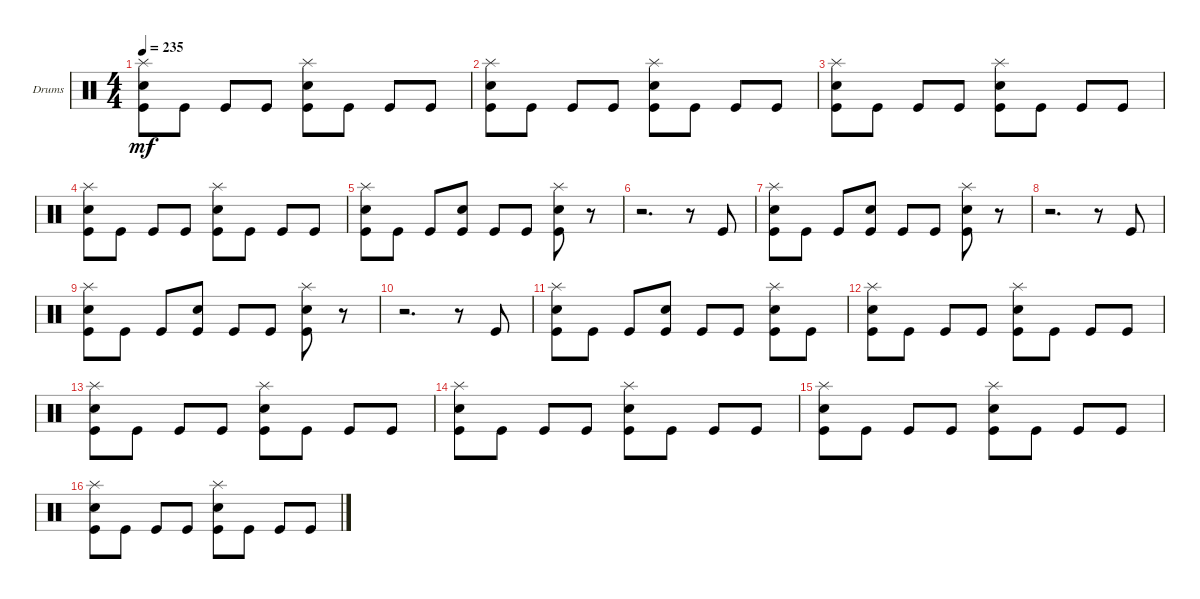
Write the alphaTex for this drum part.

\defaultSystemsLayout 4
\bracketExtendMode groupsimilarinstruments
\firstSystemTrackNameOrientation horizontal
\otherSystemsTrackNameOrientation horizontal
\track ("Drumkit" "Drums") {instrument percussion}
\staff {score}
\articulation defaults
\ts (4 4)
\tempo 235
\clef neutral
\ks c
("Splash (hit)" "Snare (hit) 2" "Kick (hit)").8{dy mf} "Kick (hit)".8 "Kick (hit)".8 "Kick (hit)".8 ("Kick (hit)" "Snare (hit) 2" "Splash (hit)").8 "Kick (hit)".8 "Kick (hit)".8 "Kick (hit)".8 |
("Splash (hit)" "Snare (hit) 2" "Kick (hit)").8 "Kick (hit)".8 "Kick (hit)".8 "Kick (hit)".8 ("Kick (hit)" "Snare (hit) 2" "Splash (hit)").8 "Kick (hit)".8 "Kick (hit)".8 "Kick (hit)".8 |
("Splash (hit)" "Snare (hit) 2" "Kick (hit)").8 "Kick (hit)".8 "Kick (hit)".8 "Kick (hit)".8 ("Kick (hit)" "Snare (hit) 2" "Splash (hit)").8 "Kick (hit)".8 "Kick (hit)".8 "Kick (hit)".8 |
("Splash (hit)" "Snare (hit) 2" "Kick (hit)").8 "Kick (hit)".8 "Kick (hit)".8 "Kick (hit)".8 ("Kick (hit)" "Snare (hit) 2" "Splash (hit)").8 "Kick (hit)".8 "Kick (hit)".8 "Kick (hit)".8 |
("Splash (hit)" "Snare (hit) 2" "Kick (hit)").8 "Kick (hit)".8 "Kick (hit)".8 ("Kick (hit)" "Snare (hit) 2").8 "Kick (hit)".8 "Kick (hit)".8 ("Kick (hit)" "Snare (hit) 2" "Splash (hit)").8 r.8 |
r.2{d} r.8 "Kick (hit)".8 |
("Splash (hit)" "Snare (hit) 2" "Kick (hit)").8 "Kick (hit)".8 "Kick (hit)".8 ("Kick (hit)" "Snare (hit) 2").8 "Kick (hit)".8 "Kick (hit)".8 ("Kick (hit)" "Snare (hit) 2" "Splash (hit)").8 r.8 |
r.2{d} r.8 "Kick (hit)".8 |
("Splash (hit)" "Snare (hit) 2" "Kick (hit)").8 "Kick (hit)".8 "Kick (hit)".8 ("Kick (hit)" "Snare (hit) 2").8 "Kick (hit)".8 "Kick (hit)".8 ("Kick (hit)" "Snare (hit) 2" "Splash (hit)").8 r.8 |
r.2{d} r.8 "Kick (hit)".8 |
("Splash (hit)" "Snare (hit) 2" "Kick (hit)").8 "Kick (hit)".8 "Kick (hit)".8 ("Kick (hit)" "Snare (hit) 2").8 "Kick (hit)".8 "Kick (hit)".8 ("Kick (hit)" "Snare (hit) 2" "Splash (hit)").8 "Kick (hit)".8 |
("Splash (hit)" "Snare (hit) 2" "Kick (hit)").8 "Kick (hit)".8 "Kick (hit)".8 "Kick (hit)".8 ("Kick (hit)" "Snare (hit) 2" "Splash (hit)").8 "Kick (hit)".8 "Kick (hit)".8 "Kick (hit)".8 |
("Splash (hit)" "Snare (hit) 2" "Kick (hit)").8 "Kick (hit)".8 "Kick (hit)".8 "Kick (hit)".8 ("Kick (hit)" "Snare (hit) 2" "Splash (hit)").8 "Kick (hit)".8 "Kick (hit)".8 "Kick (hit)".8 |
("Splash (hit)" "Snare (hit) 2" "Kick (hit)").8 "Kick (hit)".8 "Kick (hit)".8 "Kick (hit)".8 ("Kick (hit)" "Snare (hit) 2" "Splash (hit)").8 "Kick (hit)".8 "Kick (hit)".8 "Kick (hit)".8 |
("Splash (hit)" "Snare (hit) 2" "Kick (hit)").8 "Kick (hit)".8 "Kick (hit)".8 "Kick (hit)".8 ("Kick (hit)" "Snare (hit) 2" "Splash (hit)").8 "Kick (hit)".8 "Kick (hit)".8 "Kick (hit)".8 |
("Splash (hit)" "Snare (hit) 2" "Kick (hit)").8 "Kick (hit)".8 "Kick (hit)".8 "Kick (hit)".8 ("Kick (hit)" "Snare (hit) 2" "Splash (hit)").8 "Kick (hit)".8 "Kick (hit)".8 "Kick (hit)".8
